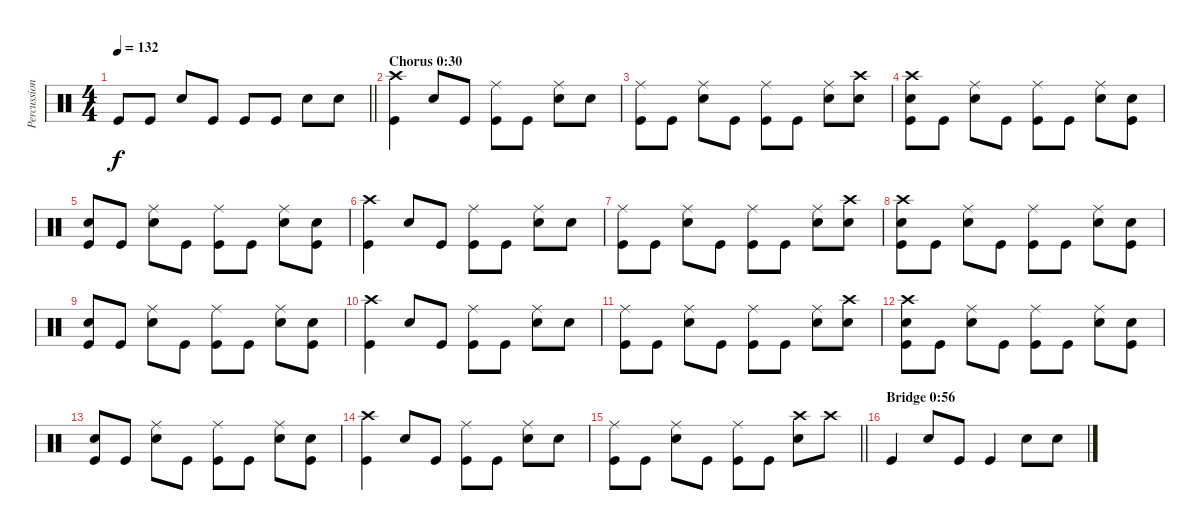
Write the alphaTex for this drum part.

\track ("Percussion" "Percussion") {instrument percussion}
\staff {score}
\articulation defaults
\ts (4 4)
\tempo 132
\clef neutral
\barLineRight lightlight
\ks c "Kick (hit)".8{dy f} "Kick (hit)".8 "Electric Snare (hit)".8 "Kick (hit)".8 "Kick (hit)".8 "Kick (hit)".8 "Electric Snare (hit)".8 "Electric Snare (hit)".8
|
\section ("" "Chorus 0:30")
("Crash high (hit)" "Kick (hit)").4 "Electric Snare (hit)".8 "Kick (hit)".8 ("Ride (middle)" "Kick (hit)").8 "Kick (hit)".8 ("Ride (middle)" "Electric Snare (hit)").8 "Electric Snare (hit)".8 |
("Ride (middle)" "Kick (hit)").8 "Kick (hit)".8 ("Ride (middle)" "Electric Snare (hit)").8 "Kick (hit)".8 ("Ride (middle)" "Kick (hit)").8 "Kick (hit)".8 ("Ride (middle)" "Electric Snare (hit)").8 ("Crash high (hit)" "Electric Snare (hit)").8 |
("Crash high (hit)" "Electric Snare (hit)" "Kick (hit)").8 "Kick (hit)".8 ("Ride (middle)" "Electric Snare (hit)").8 "Kick (hit)".8 ("Ride (middle)" "Kick (hit)").8 "Kick (hit)".8 ("Ride (middle)" "Electric Snare (hit)").8 ("Electric Snare (hit)" "Kick (hit)").8 |
("Electric Snare (hit)" "Kick (hit)").8 "Kick (hit)".8 ("Ride (middle)" "Electric Snare (hit)").8 "Kick (hit)".8 ("Ride (middle)" "Kick (hit)").8 "Kick (hit)".8 ("Ride (middle)" "Electric Snare (hit)").8 ("Electric Snare (hit)" "Kick (hit)").8 |
("Crash high (hit)" "Kick (hit)").4 "Electric Snare (hit)".8 "Kick (hit)".8 ("Ride (middle)" "Kick (hit)").8 "Kick (hit)".8 ("Ride (middle)" "Electric Snare (hit)").8 "Electric Snare (hit)".8 |
("Ride (middle)" "Kick (hit)").8 "Kick (hit)".8 ("Ride (middle)" "Electric Snare (hit)").8 "Kick (hit)".8 ("Ride (middle)" "Kick (hit)").8 "Kick (hit)".8 ("Ride (middle)" "Electric Snare (hit)").8 ("Crash high (hit)" "Electric Snare (hit)").8 |
("Crash high (hit)" "Electric Snare (hit)" "Kick (hit)").8 "Kick (hit)".8 ("Ride (middle)" "Electric Snare (hit)").8 "Kick (hit)".8 ("Ride (middle)" "Kick (hit)").8 "Kick (hit)".8 ("Ride (middle)" "Electric Snare (hit)").8 ("Electric Snare (hit)" "Kick (hit)").8 |
("Electric Snare (hit)" "Kick (hit)").8 "Kick (hit)".8 ("Ride (middle)" "Electric Snare (hit)").8 "Kick (hit)".8 ("Ride (middle)" "Kick (hit)").8 "Kick (hit)".8 ("Ride (middle)" "Electric Snare (hit)").8 ("Electric Snare (hit)" "Kick (hit)").8 |
("Crash high (hit)" "Kick (hit)").4 "Electric Snare (hit)".8 "Kick (hit)".8 ("Ride (middle)" "Kick (hit)").8 "Kick (hit)".8 ("Ride (middle)" "Electric Snare (hit)").8 "Electric Snare (hit)".8 |
("Ride (middle)" "Kick (hit)").8 "Kick (hit)".8 ("Ride (middle)" "Electric Snare (hit)").8 "Kick (hit)".8 ("Ride (middle)" "Kick (hit)").8 "Kick (hit)".8 ("Ride (middle)" "Electric Snare (hit)").8 ("Crash high (hit)" "Electric Snare (hit)").8 |
("Crash high (hit)" "Electric Snare (hit)" "Kick (hit)").8 "Kick (hit)".8 ("Ride (middle)" "Electric Snare (hit)").8 "Kick (hit)".8 ("Ride (middle)" "Kick (hit)").8 "Kick (hit)".8 ("Ride (middle)" "Electric Snare (hit)").8 ("Electric Snare (hit)" "Kick (hit)").8 |
("Electric Snare (hit)" "Kick (hit)").8 "Kick (hit)".8 ("Ride (middle)" "Electric Snare (hit)").8 "Kick (hit)".8 ("Ride (middle)" "Kick (hit)").8 "Kick (hit)".8 ("Ride (middle)" "Electric Snare (hit)").8 ("Electric Snare (hit)" "Kick (hit)").8 |
("Crash high (hit)" "Kick (hit)").4 "Electric Snare (hit)".8 "Kick (hit)".8 ("Ride (middle)" "Kick (hit)").8 "Kick (hit)".8 ("Ride (middle)" "Electric Snare (hit)").8 "Electric Snare (hit)".8 |
\barLineRight lightlight
("Ride (middle)" "Kick (hit)").8 "Kick (hit)".8 ("Ride (middle)" "Electric Snare (hit)").8 "Kick (hit)".8 ("Ride (middle)" "Kick (hit)").8 "Kick (hit)".8 ("Crash high (hit)" "Electric Snare (hit)").8 "Crash high (hit)".8 |
\section ("" "Bridge 0:56")
"Kick (hit)".4 "Electric Snare (hit)".8 "Kick (hit)".8 "Kick (hit)".4 "Electric Snare (hit)".8 "Electric Snare (hit)".8
